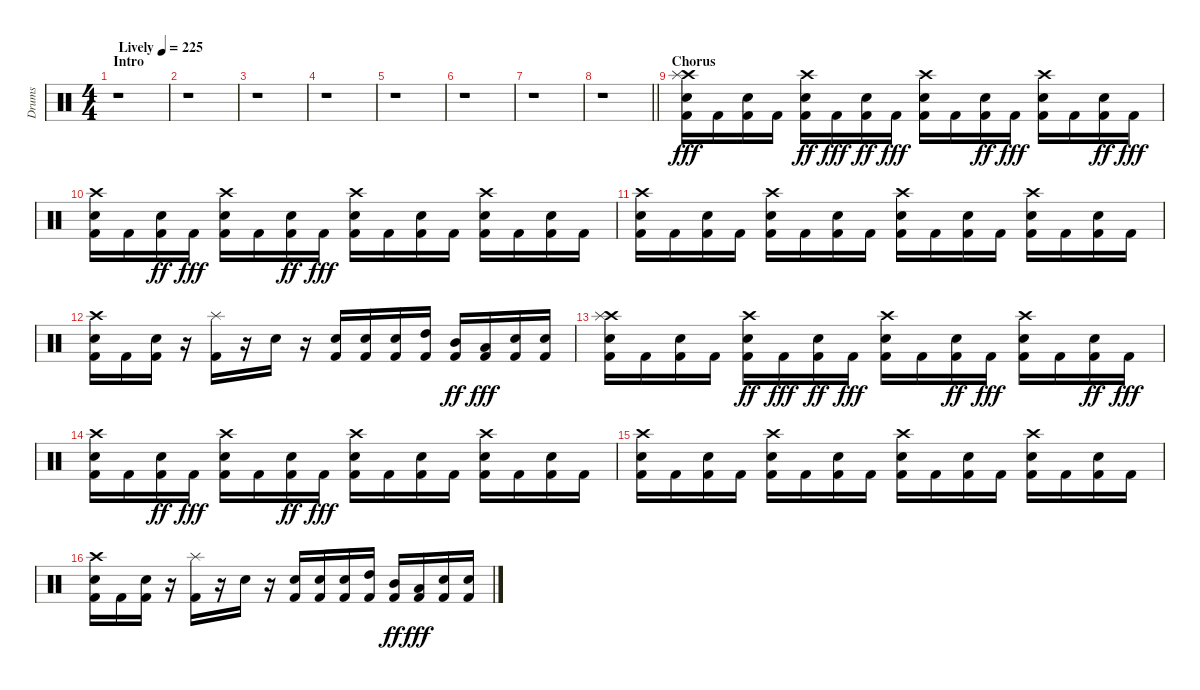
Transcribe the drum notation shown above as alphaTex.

\track ("Drums" "Drums") {instrument percussion}
\staff {score}
\articulation defaults
\ts (4 4)
\section ("" "Intro")
\tempo (225 "Lively")
\clef neutral
\ks c
r.1{dy fff} |
r.1 |
r.1 |
r.1 |
r.1 |
r.1 |
r.1 |
\barLineRight lightlight
r.1 |
\section ("" "Chorus")
("Kick (hit) 2" "Snare (hit) 2" "Crash high (hit)" "Splash (hit)").16 "Kick (hit) 2".16 ("Snare (hit) 2" "Kick (hit) 2").16 "Kick (hit) 2".16 ("Crash high (hit)" "Kick (hit) 2" "Snare (hit) 2").16{dy ff} "Kick (hit) 2".16{dy fff} ("Kick (hit) 2" "Snare (hit) 2").16{dy ff} "Kick (hit) 2".16{dy fff} ("Kick (hit) 2" "Snare (hit) 2" "Crash high (hit)").16 "Kick (hit) 2".16 ("Kick (hit) 2" "Snare (hit) 2").16{dy ff} "Kick (hit) 2".16{dy fff} ("Kick (hit) 2" "Snare (hit) 2" "Crash high (hit)").16 "Kick (hit) 2".16 ("Kick (hit) 2" "Snare (hit) 2").16{dy ff} "Kick (hit) 2".16{dy fff} |
("Kick (hit) 2" "Snare (hit) 2" "Crash high (hit)").16 "Kick (hit) 2".16 ("Kick (hit) 2" "Snare (hit) 2").16{dy ff} "Kick (hit) 2".16{dy fff} ("Kick (hit) 2" "Snare (hit) 2" "Crash high (hit)").16 "Kick (hit) 2".16 ("Kick (hit) 2" "Snare (hit) 2").16{dy ff} "Kick (hit) 2".16{dy fff} ("Kick (hit) 2" "Snare (hit) 2" "Crash high (hit)").16 "Kick (hit) 2".16 ("Snare (hit) 2" "Kick (hit) 2").16 "Kick (hit) 2".16 ("Crash high (hit)" "Kick (hit) 2" "Snare (hit) 2").16 "Kick (hit) 2".16 ("Snare (hit) 2" "Kick (hit) 2").16 "Kick (hit) 2".16 |
("Kick (hit) 2" "Snare (hit) 2" "Crash high (hit)").16 "Kick (hit) 2".16 ("Kick (hit) 2" "Snare (hit) 2").16 "Kick (hit) 2".16 ("Kick (hit) 2" "Snare (hit) 2" "Crash high (hit)").16 "Kick (hit) 2".16 ("Kick (hit) 2" "Snare (hit) 2").16 "Kick (hit) 2".16 ("Kick (hit) 2" "Snare (hit) 2" "Crash high (hit)").16 "Kick (hit) 2".16 ("Kick (hit) 2" "Snare (hit) 2").16 "Kick (hit) 2".16 ("Kick (hit) 2" "Snare (hit) 2" "Crash high (hit)").16 "Kick (hit) 2".16 ("Kick (hit) 2" "Snare (hit) 2").16 "Kick (hit) 2".16 |
("Kick (hit) 2" "Snare (hit) 2" "Crash high (hit)").16 "Kick (hit) 2".16 ("Kick (hit) 2" "Snare (hit) 2").16 r.16 ("Kick (hit) 2" "Splash (hit)").16 r.16 "Snare (hit) 2".16 r.16 ("Kick (hit) 2" "Snare (hit) 2").16 ("Snare (hit) 2" "Kick (hit) 2").16 ("Snare (hit) 2" "Kick (hit) 2").16 ("High Tom (hit)" "Kick (hit) 2").16 ("Mid Tom (hit)" "Kick (hit) 2").16{dy ff} ("Low Tom (hit)" "Kick (hit) 2").16{dy fff} ("Kick (hit) 2" "Snare (hit) 2").16 ("Kick (hit) 2" "Snare (hit) 2").16 |
("Kick (hit) 2" "Snare (hit) 2" "Crash high (hit)" "Splash (hit)").16 "Kick (hit) 2".16 ("Snare (hit) 2" "Kick (hit) 2").16 "Kick (hit) 2".16 ("Crash high (hit)" "Kick (hit) 2" "Snare (hit) 2").16{dy ff} "Kick (hit) 2".16{dy fff} ("Kick (hit) 2" "Snare (hit) 2").16{dy ff} "Kick (hit) 2".16{dy fff} ("Kick (hit) 2" "Snare (hit) 2" "Crash high (hit)").16 "Kick (hit) 2".16 ("Kick (hit) 2" "Snare (hit) 2").16{dy ff} "Kick (hit) 2".16{dy fff} ("Kick (hit) 2" "Snare (hit) 2" "Crash high (hit)").16 "Kick (hit) 2".16 ("Kick (hit) 2" "Snare (hit) 2").16{dy ff} "Kick (hit) 2".16{dy fff} |
("Kick (hit) 2" "Snare (hit) 2" "Crash high (hit)").16 "Kick (hit) 2".16 ("Kick (hit) 2" "Snare (hit) 2").16{dy ff} "Kick (hit) 2".16{dy fff} ("Kick (hit) 2" "Snare (hit) 2" "Crash high (hit)").16 "Kick (hit) 2".16 ("Kick (hit) 2" "Snare (hit) 2").16{dy ff} "Kick (hit) 2".16{dy fff} ("Kick (hit) 2" "Snare (hit) 2" "Crash high (hit)").16 "Kick (hit) 2".16 ("Snare (hit) 2" "Kick (hit) 2").16 "Kick (hit) 2".16 ("Crash high (hit)" "Kick (hit) 2" "Snare (hit) 2").16 "Kick (hit) 2".16 ("Snare (hit) 2" "Kick (hit) 2").16 "Kick (hit) 2".16 |
("Kick (hit) 2" "Snare (hit) 2" "Crash high (hit)").16 "Kick (hit) 2".16 ("Kick (hit) 2" "Snare (hit) 2").16 "Kick (hit) 2".16 ("Kick (hit) 2" "Snare (hit) 2" "Crash high (hit)").16 "Kick (hit) 2".16 ("Kick (hit) 2" "Snare (hit) 2").16 "Kick (hit) 2".16 ("Kick (hit) 2" "Snare (hit) 2" "Crash high (hit)").16 "Kick (hit) 2".16 ("Kick (hit) 2" "Snare (hit) 2").16 "Kick (hit) 2".16 ("Kick (hit) 2" "Snare (hit) 2" "Crash high (hit)").16 "Kick (hit) 2".16 ("Kick (hit) 2" "Snare (hit) 2").16 "Kick (hit) 2".16 |
("Kick (hit) 2" "Snare (hit) 2" "Crash high (hit)").16 "Kick (hit) 2".16 ("Kick (hit) 2" "Snare (hit) 2").16 r.16 ("Kick (hit) 2" "Splash (hit)").16 r.16 "Snare (hit) 2".16 r.16 ("Kick (hit) 2" "Snare (hit) 2").16 ("Snare (hit) 2" "Kick (hit) 2").16 ("Snare (hit) 2" "Kick (hit) 2").16 ("High Tom (hit)" "Kick (hit) 2").16 ("Mid Tom (hit)" "Kick (hit) 2").16{dy ff} ("Low Tom (hit)" "Kick (hit) 2").16{dy fff} ("Kick (hit) 2" "Snare (hit) 2").16 ("Kick (hit) 2" "Snare (hit) 2").16
